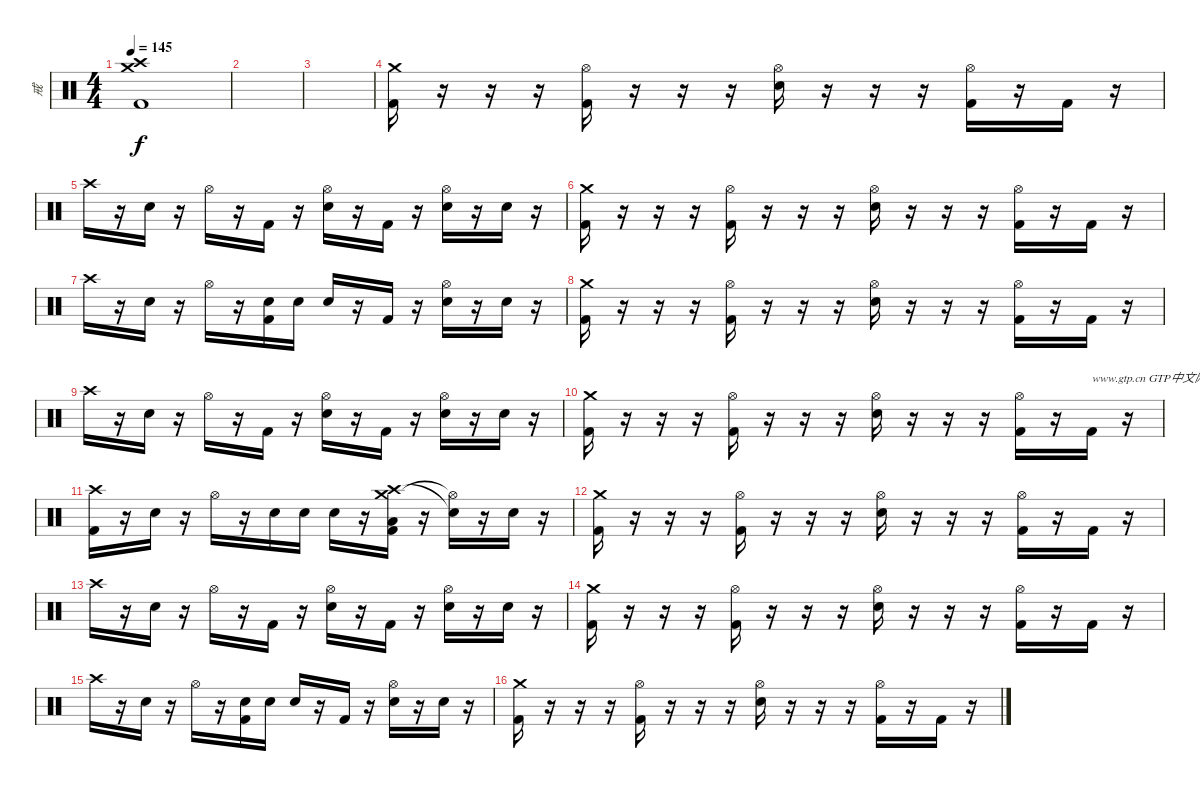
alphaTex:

\track ("戒" "戒") {instrument percussion}
\staff {score}
\articulation defaults
\ts (4 4)
\tempo 145
\clef neutral
\ks c
("Crash medium (hit)" "Crash high (hit)" "Kick (hit) 2").1{dy f} |
|
|
("Crash medium (hit)" "Kick (hit) 2").16 r.16 r.16 r.16 ("Hi-Hat (open)" "Kick (hit) 2").16 r.16 r.16 r.16 ("Hi-Hat (open)" "Electric Snare (hit)").16 r.16 r.16 r.16 ("Hi-Hat (open)" "Kick (hit) 2").16 r.16 "Kick (hit) 2".16 r.16 |
"Crash high (hit)".16 r.16 "Electric Snare (hit)".16 r.16 "Hi-Hat (open)".16 r.16 "Kick (hit) 2".16 r.16 ("Hi-Hat (open)" "Electric Snare (hit)").16 r.16 "Kick (hit) 2".16 r.16 ("Hi-Hat (open)" "Electric Snare (hit)").16 r.16 "Electric Snare (hit)".16 r.16 |
("Crash medium (hit)" "Kick (hit) 2").16 r.16 r.16 r.16 ("Hi-Hat (open)" "Kick (hit) 2").16 r.16 r.16 r.16 ("Hi-Hat (open)" "Electric Snare (hit)").16 r.16 r.16 r.16 ("Hi-Hat (open)" "Kick (hit) 2").16 r.16 "Kick (hit) 2".16 r.16 |
"Crash high (hit)".16 r.16 "Electric Snare (hit)".16 r.16 "Hi-Hat (open)".16 r.16 ("Electric Snare (hit)" "Kick (hit) 2").16 "Electric Snare (hit)".16 "Electric Snare (hit)".16 r.16 "Kick (hit) 2".16 r.16 ("Hi-Hat (open)" "Electric Snare (hit)").16 r.16 "Electric Snare (hit)".16 r.16 |
("Crash medium (hit)" "Kick (hit) 2").16 r.16 r.16 r.16 ("Hi-Hat (open)" "Kick (hit) 2").16 r.16 r.16 r.16 ("Hi-Hat (open)" "Electric Snare (hit)").16 r.16 r.16 r.16 ("Hi-Hat (open)" "Kick (hit) 2").16 r.16 "Kick (hit) 2".16 r.16 |
"Crash high (hit)".16 r.16 "Electric Snare (hit)".16 r.16 "Hi-Hat (open)".16 r.16 "Kick (hit) 2".16 r.16 ("Hi-Hat (open)" "Electric Snare (hit)").16 r.16 "Kick (hit) 2".16 r.16 ("Hi-Hat (open)" "Electric Snare (hit)").16 r.16 "Electric Snare (hit)".16 r.16 |
("Crash medium (hit)" "Kick (hit) 2").16 r.16 r.16 r.16 ("Hi-Hat (open)" "Kick (hit) 2").16 r.16 r.16 r.16 ("Hi-Hat (open)" "Electric Snare (hit)").16 r.16 r.16 r.16 ("Hi-Hat (open)" "Kick (hit) 2").16 r.16 "Kick (hit) 2".16{txt "www.gtp.cn GTP中文网为您提供优秀的谱子"} r.16 |
("Crash high (hit)" "Kick (hit) 2").16 r.16 "Electric Snare (hit)".16 r.16 "Hi-Hat (open)".16 r.16 "Electric Snare (hit)".16 "Electric Snare (hit)".16 "Electric Snare (hit)".16 r.16 ("Crash medium (hit)" "Crash high (hit)" "Low Tom (hit)" "Kick (hit) 2").16 r.16 ("Hi-Hat (open)"{t} "Electric Snare (hit)"{t}).16 r.16 "Electric Snare (hit)".16 r.16 |
("Crash medium (hit)" "Kick (hit) 2").16 r.16 r.16 r.16 ("Hi-Hat (open)" "Kick (hit) 2").16 r.16 r.16 r.16 ("Hi-Hat (open)" "Electric Snare (hit)").16 r.16 r.16 r.16 ("Hi-Hat (open)" "Kick (hit) 2").16 r.16 "Kick (hit) 2".16 r.16 |
"Crash high (hit)".16 r.16 "Electric Snare (hit)".16 r.16 "Hi-Hat (open)".16 r.16 "Kick (hit) 2".16 r.16 ("Hi-Hat (open)" "Electric Snare (hit)").16 r.16 "Kick (hit) 2".16 r.16 ("Hi-Hat (open)" "Electric Snare (hit)").16 r.16 "Electric Snare (hit)".16 r.16 |
("Crash medium (hit)" "Kick (hit) 2").16 r.16 r.16 r.16 ("Hi-Hat (open)" "Kick (hit) 2").16 r.16 r.16 r.16 ("Hi-Hat (open)" "Electric Snare (hit)").16 r.16 r.16 r.16 ("Hi-Hat (open)" "Kick (hit) 2").16 r.16 "Kick (hit) 2".16 r.16 |
"Crash high (hit)".16 r.16 "Electric Snare (hit)".16 r.16 "Hi-Hat (open)".16 r.16 ("Electric Snare (hit)" "Kick (hit) 2").16 "Electric Snare (hit)".16 "Electric Snare (hit)".16 r.16 "Kick (hit) 2".16 r.16 ("Hi-Hat (open)" "Electric Snare (hit)").16 r.16 "Electric Snare (hit)".16 r.16 |
("Crash medium (hit)" "Kick (hit) 2").16 r.16 r.16 r.16 ("Hi-Hat (open)" "Kick (hit) 2").16 r.16 r.16 r.16 ("Hi-Hat (open)" "Electric Snare (hit)").16 r.16 r.16 r.16 ("Hi-Hat (open)" "Kick (hit) 2").16 r.16 "Kick (hit) 2".16 r.16
